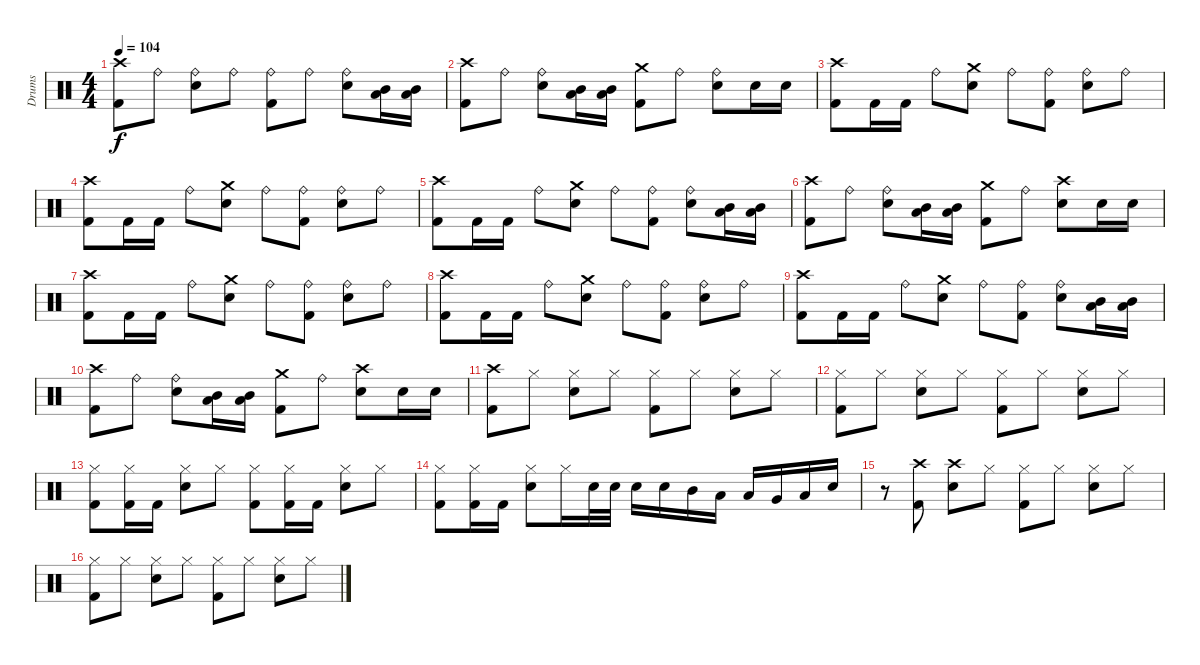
\track ("Drums" "Drums") {instrument percussion}
\staff {score}
\articulation defaults
\ts (4 4)
\tempo 104
\clef neutral
\ks c
("Kick (hit) 2" "Crash high (hit)").8{dy f} "Ride (bell)".8 ("Snare (hit) 2" "Ride (bell)").8 "Ride (bell)".8 ("Kick (hit) 2" "Ride (bell)").8 "Ride (bell)".8 ("Ride (bell)" "Snare (hit) 2").8 ("Low Tom (hit)" "Mid Tom (hit)").16 ("Low Tom (hit)" "Mid Tom (hit)").16 |
("Kick (hit) 2" "Crash high (hit)").8 "Ride (bell)".8 ("Snare (hit) 2" "Ride (bell)").8 ("Low Tom (hit)" "Mid Tom (hit)").16 ("Mid Tom (hit)" "Low Tom (hit)").16 ("Crash medium (hit)" "Kick (hit) 2").8 "Ride (bell)".8 ("Ride (bell)" "Snare (hit) 2").8 "Snare (hit) 2".16 "Snare (hit) 2".16 |
("Kick (hit) 2" "Crash high (hit)").8 "Kick (hit) 2".16 "Kick (hit) 2".16 "Ride (bell)".8 ("Snare (hit) 2" "Crash medium (hit)").8 "Ride (bell)".8 ("Kick (hit) 2" "Ride (bell)").8 ("Ride (bell)" "Snare (hit) 2").8 "Ride (bell)".8 |
("Kick (hit) 2" "Crash high (hit)").8 "Kick (hit) 2".16 "Kick (hit) 2".16 "Ride (bell)".8 ("Snare (hit) 2" "Crash medium (hit)").8 "Ride (bell)".8 ("Ride (bell)" "Kick (hit) 2").8 ("Ride (bell)" "Snare (hit) 2").8 "Ride (bell)".8 |
("Kick (hit) 2" "Crash high (hit)").8 "Kick (hit) 2".16 "Kick (hit) 2".16 "Ride (bell)".8 ("Crash medium (hit)" "Snare (hit) 2").8 "Ride (bell)".8 ("Kick (hit) 2" "Ride (bell)").8 ("Ride (bell)" "Snare (hit) 2").8 ("Low Tom (hit)" "Mid Tom (hit)").16 ("Mid Tom (hit)" "Low Tom (hit)").16 |
("Kick (hit) 2" "Crash high (hit)").8 "Ride (bell)".8 ("Ride (bell)" "Snare (hit) 2").8 ("Low Tom (hit)" "Mid Tom (hit)").16 ("Low Tom (hit)" "Mid Tom (hit)").16 ("Crash medium (hit)" "Kick (hit) 2").8 "Ride (bell)".8 ("Crash high (hit)" "Snare (hit) 2").8 "Snare (hit) 2".16 "Snare (hit) 2".16 |
("Kick (hit) 2" "Crash high (hit)").8 "Kick (hit) 2".16 "Kick (hit) 2".16 "Ride (bell)".8 ("Snare (hit) 2" "Crash medium (hit)").8 "Ride (bell)".8 ("Ride (bell)" "Kick (hit) 2").8 ("Ride (bell)" "Snare (hit) 2").8 "Ride (bell)".8 |
("Kick (hit) 2" "Crash high (hit)").8 "Kick (hit) 2".16 "Kick (hit) 2".16 "Ride (bell)".8 ("Snare (hit) 2" "Crash medium (hit)").8 "Ride (bell)".8 ("Kick (hit) 2" "Ride (bell)").8 ("Ride (bell)" "Snare (hit) 2").8 "Ride (bell)".8 |
("Kick (hit) 2" "Crash high (hit)").8 "Kick (hit) 2".16 "Kick (hit) 2".16 "Ride (bell)".8 ("Snare (hit) 2" "Crash medium (hit)").8 "Ride (bell)".8 ("Kick (hit) 2" "Ride (bell)").8 ("Snare (hit) 2" "Ride (bell)").8 ("Low Tom (hit)" "Mid Tom (hit)").16 ("Mid Tom (hit)" "Low Tom (hit)").16 |
("Kick (hit) 2" "Crash high (hit)").8 "Ride (bell)".8 ("Ride (bell)" "Snare (hit) 2").8 ("Mid Tom (hit)" "Low Tom (hit)").16 ("Mid Tom (hit)" "Low Tom (hit)").16 ("Crash medium (hit)" "Kick (hit) 2").8 "Ride (bell)".8 ("Crash high (hit)" "Snare (hit) 2").8 "Snare (hit) 2".16 "Snare (hit) 2".16 |
("Kick (hit) 2" "Crash high (hit)").8 "Hi-Hat (closed)".8 ("Snare (hit) 2" "Hi-Hat (closed)").8 "Hi-Hat (closed)".8 ("Kick (hit) 2" "Hi-Hat (closed)").8 "Hi-Hat (closed)".8 ("Snare (hit) 2" "Hi-Hat (closed)").8 "Hi-Hat (closed)".8 |
("Kick (hit) 2" "Hi-Hat (closed)").8 "Hi-Hat (closed)".8 ("Snare (hit) 2" "Hi-Hat (closed)").8 "Hi-Hat (closed)".8 ("Kick (hit) 2" "Hi-Hat (closed)").8 "Hi-Hat (closed)".8 ("Snare (hit) 2" "Hi-Hat (closed)").8 "Hi-Hat (closed)".8 |
("Hi-Hat (closed)" "Kick (hit) 2").8 ("Kick (hit) 2" "Hi-Hat (closed)").16 "Kick (hit) 2".16 ("Snare (hit) 2" "Hi-Hat (closed)").8 "Hi-Hat (closed)".8 ("Kick (hit) 2" "Hi-Hat (closed)").8 ("Kick (hit) 2" "Hi-Hat (closed)").16 "Kick (hit) 2".16 ("Snare (hit) 2" "Hi-Hat (closed)").8 "Hi-Hat (closed)".8 |
("Hi-Hat (closed)" "Kick (hit) 2").8 ("Hi-Hat (closed)" "Kick (hit) 2").16 "Kick (hit) 2".16 ("Snare (hit) 2" "Hi-Hat (closed)").8 "Hi-Hat (closed)".16 "Snare (hit) 2".32 "Snare (hit) 2".32 "Snare (hit) 2".16 "Snare (hit) 2".16 "Mid Tom (hit)".16 "Low Tom (hit)".16 "Low Tom (hit)".16 "Very Low Tom (hit)".16 "Low Floor Tom (hit)".16 "Snare (hit) 2".16 |
r.8 ("Crash high (hit)" "Kick (hit) 2").8 ("Snare (hit) 2" "Crash high (hit)").8 "Hi-Hat (closed)".8 ("Hi-Hat (closed)" "Kick (hit) 2").8 "Hi-Hat (closed)".8 ("Snare (hit) 2" "Hi-Hat (closed)").8 "Hi-Hat (closed)".8 |
("Kick (hit) 2" "Hi-Hat (closed)").8 "Hi-Hat (closed)".8 ("Hi-Hat (closed)" "Snare (hit) 2").8 "Hi-Hat (closed)".8 ("Kick (hit) 2" "Hi-Hat (closed)").8 "Hi-Hat (closed)".8 ("Hi-Hat (closed)" "Snare (hit) 2").8 "Hi-Hat (closed)".8
